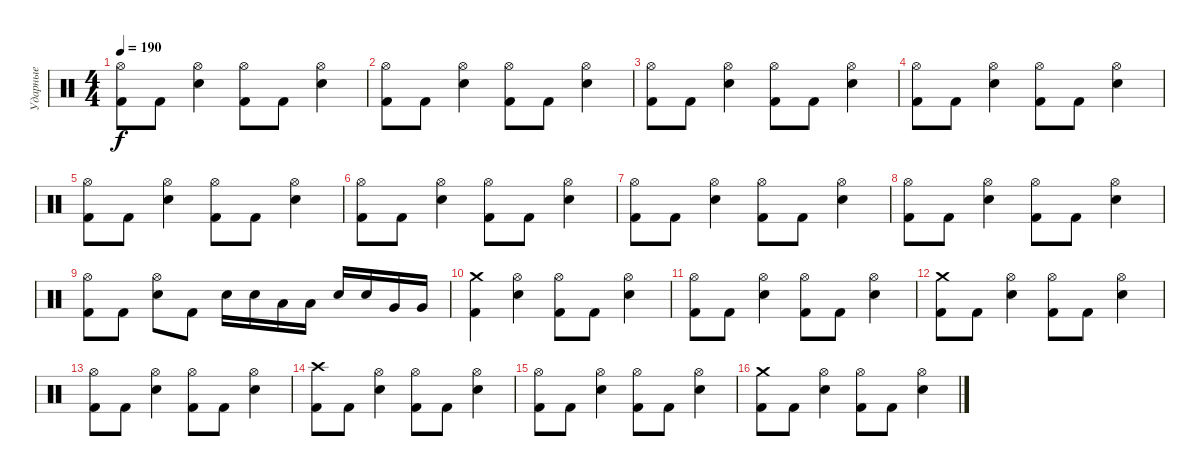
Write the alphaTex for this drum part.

\track ("Ударные" "Ударные") {instrument percussion}
\staff {score}
\articulation defaults
\ts (4 4)
\tempo 190
\clef neutral
\ks c
("Hi-Hat (open)" "Kick (hit) 2").8{dy f} "Kick (hit) 2".8 ("Hi-Hat (open)" "Snare (hit) 2").4 ("Hi-Hat (open)" "Kick (hit) 2").8 "Kick (hit) 2".8 ("Hi-Hat (open)" "Snare (hit) 2").4 |
("Hi-Hat (open)" "Kick (hit) 2").8 "Kick (hit) 2".8 ("Hi-Hat (open)" "Snare (hit) 2").4 ("Hi-Hat (open)" "Kick (hit) 2").8 "Kick (hit) 2".8 ("Hi-Hat (open)" "Snare (hit) 2").4 |
("Hi-Hat (open)" "Kick (hit) 2").8 "Kick (hit) 2".8 ("Hi-Hat (open)" "Snare (hit) 2").4 ("Hi-Hat (open)" "Kick (hit) 2").8 "Kick (hit) 2".8 ("Hi-Hat (open)" "Snare (hit) 2").4 |
("Hi-Hat (open)" "Kick (hit) 2").8 "Kick (hit) 2".8 ("Hi-Hat (open)" "Snare (hit) 2").4 ("Hi-Hat (open)" "Kick (hit) 2").8 "Kick (hit) 2".8 ("Hi-Hat (open)" "Snare (hit) 2").4 |
("Hi-Hat (open)" "Kick (hit) 2").8 "Kick (hit) 2".8 ("Hi-Hat (open)" "Snare (hit) 2").4 ("Hi-Hat (open)" "Kick (hit) 2").8 "Kick (hit) 2".8 ("Hi-Hat (open)" "Snare (hit) 2").4 |
("Hi-Hat (open)" "Kick (hit) 2").8 "Kick (hit) 2".8 ("Hi-Hat (open)" "Snare (hit) 2").4 ("Hi-Hat (open)" "Kick (hit) 2").8 "Kick (hit) 2".8 ("Hi-Hat (open)" "Snare (hit) 2").4 |
("Hi-Hat (open)" "Kick (hit) 2").8 "Kick (hit) 2".8 ("Hi-Hat (open)" "Snare (hit) 2").4 ("Hi-Hat (open)" "Kick (hit) 2").8 "Kick (hit) 2".8 ("Hi-Hat (open)" "Snare (hit) 2").4 |
("Hi-Hat (open)" "Kick (hit) 2").8 "Kick (hit) 2".8 ("Hi-Hat (open)" "Snare (hit) 2").4 ("Hi-Hat (open)" "Kick (hit) 2").8 "Kick (hit) 2".8 ("Hi-Hat (open)" "Snare (hit) 2").4 |
("Hi-Hat (open)" "Kick (hit) 2").8 "Kick (hit) 2".8 ("Hi-Hat (open)" "Snare (hit) 2").8 "Kick (hit) 2".8 "Snare (hit) 2".16 "Snare (hit) 2".16 "Low Tom (hit)".16 "Low Tom (hit)".16 "Snare (hit) 2".16 "Snare (hit) 2".16 "Very Low Tom (hit)".16 "Very Low Tom (hit)".16 |
("Crash medium (hit)" "Kick (hit) 2").4 ("Hi-Hat (open)" "Snare (hit) 2").4 ("Hi-Hat (open)" "Kick (hit) 2").8 "Kick (hit) 2".8 ("Hi-Hat (open)" "Snare (hit) 2").4 |
("Hi-Hat (open)" "Kick (hit) 2").8 "Kick (hit) 2".8 ("Hi-Hat (open)" "Snare (hit) 2").4 ("Hi-Hat (open)" "Kick (hit) 2").8 "Kick (hit) 2".8 ("Hi-Hat (open)" "Snare (hit) 2").4 |
("Crash medium (hit)" "Kick (hit) 2").8 "Kick (hit) 2".8 ("Hi-Hat (open)" "Snare (hit) 2").4 ("Hi-Hat (open)" "Kick (hit) 2").8 "Kick (hit) 2".8 ("Hi-Hat (open)" "Snare (hit) 2").4 |
("Hi-Hat (open)" "Kick (hit) 2").8 "Kick (hit) 2".8 ("Hi-Hat (open)" "Snare (hit) 2").4 ("Hi-Hat (open)" "Kick (hit) 2").8 "Kick (hit) 2".8 ("Hi-Hat (open)" "Snare (hit) 2").4 |
("Crash high (hit)" "Kick (hit) 2").8 "Kick (hit) 2".8 ("Hi-Hat (open)" "Snare (hit) 2").4 ("Hi-Hat (open)" "Kick (hit) 2").8 "Kick (hit) 2".8 ("Hi-Hat (open)" "Snare (hit) 2").4 |
("Hi-Hat (open)" "Kick (hit) 2").8 "Kick (hit) 2".8 ("Hi-Hat (open)" "Snare (hit) 2").4 ("Hi-Hat (open)" "Kick (hit) 2").8 "Kick (hit) 2".8 ("Hi-Hat (open)" "Snare (hit) 2").4 |
("Crash medium (hit)" "Kick (hit) 2").8 "Kick (hit) 2".8 ("Hi-Hat (open)" "Snare (hit) 2").4 ("Hi-Hat (open)" "Kick (hit) 2").8 "Kick (hit) 2".8 ("Hi-Hat (open)" "Snare (hit) 2").4
